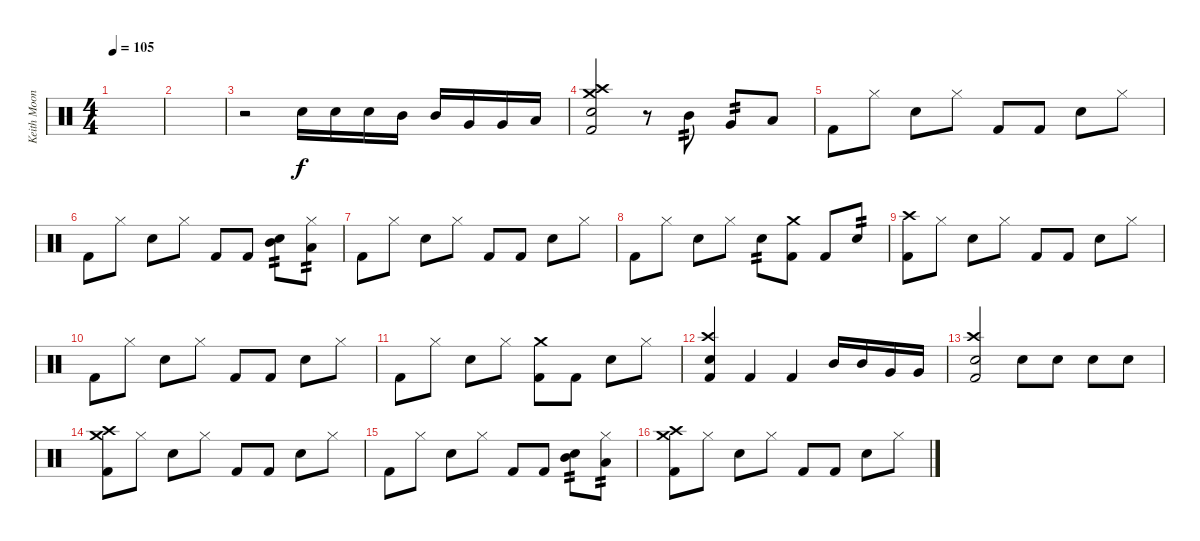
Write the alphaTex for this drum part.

\track ("Keith Moon" "Keith Moon") {instrument percussion}
\staff {score}
\articulation defaults
\ts (4 4)
\tempo 105
\clef neutral
\ks c
|
|
r.2 "Electric Snare (hit)".16 "Electric Snare (hit)".16 "Electric Snare (hit)".16 "Mid Tom (hit)".16 "Mid Tom (hit)".16 "Very Low Tom (hit)".16 "Very Low Tom (hit)".16 "Low Floor Tom (hit)".16 |
("Crash high (hit)" "Crash medium (hit)" "Electric Snare (hit)" "Kick (hit) 2").2 r.8 "Mid Tom (hit)".8{tp 2} "Very Low Tom (hit)".8{tp 2} "Low Floor Tom (hit)".8 |
"Kick (hit) 2".8 "Hi-Hat (closed)".8 "Electric Snare (hit)".8 "Hi-Hat (closed)".8 "Kick (hit) 2".8 "Kick (hit) 2".8 "Electric Snare (hit)".8 "Hi-Hat (closed)".8 |
"Kick (hit) 2".8 "Hi-Hat (closed)".8 "Electric Snare (hit)".8 "Hi-Hat (closed)".8 "Kick (hit) 2".8 "Kick (hit) 2".8 ("Electric Snare (hit)" "Mid Tom (hit)").8{tp 2} ("Hi-Hat (closed)" "Low Floor Tom (hit)").8{tp 2} |
"Kick (hit) 2".8 "Hi-Hat (closed)".8 "Electric Snare (hit)".8 "Hi-Hat (closed)".8 "Kick (hit) 2".8 "Kick (hit) 2".8 "Electric Snare (hit)".8 "Hi-Hat (closed)".8 |
"Kick (hit) 2".8 "Hi-Hat (closed)".8 "Electric Snare (hit)".8 "Hi-Hat (closed)".8 "Electric Snare (hit)".8{tp 2} ("Crash medium (hit)" "Kick (hit) 2").8 "Kick (hit) 2".8 "Electric Snare (hit)".8{tp 2} |
("Crash high (hit)" "Kick (hit) 2").8 "Hi-Hat (closed)".8 "Electric Snare (hit)".8 "Hi-Hat (closed)".8 "Kick (hit) 2".8 "Kick (hit) 2".8 "Electric Snare (hit)".8 "Hi-Hat (closed)".8 |
"Kick (hit) 2".8 "Hi-Hat (closed)".8 "Electric Snare (hit)".8 "Hi-Hat (closed)".8 "Kick (hit) 2".8 "Kick (hit) 2".8 "Electric Snare (hit)".8 "Hi-Hat (closed)".8 |
"Kick (hit) 2".8 "Hi-Hat (closed)".8 "Electric Snare (hit)".8 "Hi-Hat (closed)".8 ("Crash medium (hit)" "Kick (hit) 2").8 "Kick (hit) 2".8 "Electric Snare (hit)".8 "Hi-Hat (closed)".8 |
("Crash high (hit)" "Electric Snare (hit)" "Kick (hit) 2").4 "Kick (hit) 2".4 "Kick (hit) 2".4 "Mid Tom (hit)".16 "Mid Tom (hit)".16 "Very Low Tom (hit)".16 "Very Low Tom (hit)".16 |
("Crash high (hit)" "Electric Snare (hit)" "Kick (hit) 2").2 "Electric Snare (hit)".8 "Electric Snare (hit)".8 "Electric Snare (hit)".8 "Electric Snare (hit)".8 |
("Crash high (hit)" "Crash medium (hit)" "Kick (hit) 2").8 "Hi-Hat (closed)".8 "Electric Snare (hit)".8 "Hi-Hat (closed)".8 "Kick (hit) 2".8 "Kick (hit) 2".8 "Electric Snare (hit)".8 "Hi-Hat (closed)".8 |
"Kick (hit) 2".8 "Hi-Hat (closed)".8 "Electric Snare (hit)".8 "Hi-Hat (closed)".8 "Kick (hit) 2".8 "Kick (hit) 2".8 ("Electric Snare (hit)" "Mid Tom (hit)").8{tp 2} ("Hi-Hat (closed)" "Low Floor Tom (hit)").8{tp 2} |
("Crash high (hit)" "Crash medium (hit)" "Kick (hit) 2").8 "Hi-Hat (closed)".8 "Electric Snare (hit)".8 "Hi-Hat (closed)".8 "Kick (hit) 2".8 "Kick (hit) 2".8 "Electric Snare (hit)".8 "Hi-Hat (closed)".8
